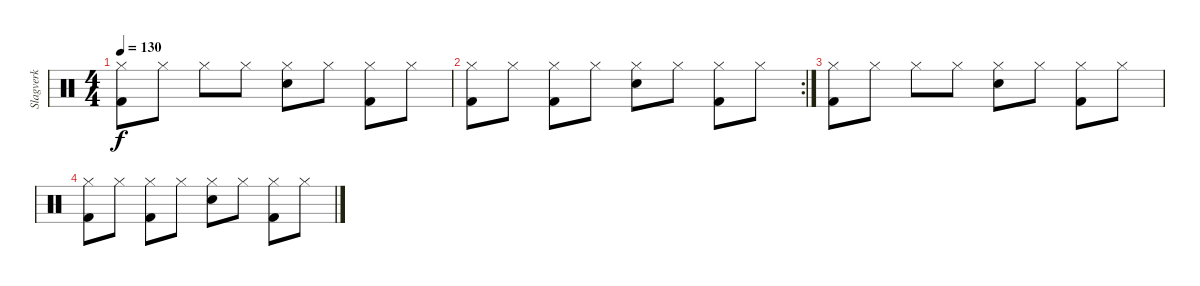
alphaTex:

\track ("Slagverk" "Slagverk") {instrument percussion}
\staff {score}
\articulation defaults
\ts (4 4)
\tempo 130
\clef neutral
\ks c
("Hi-Hat (closed)" "Kick (hit) 2").8{dy f} "Hi-Hat (closed)".8 "Hi-Hat (closed)".8 "Hi-Hat (closed)".8 ("Hi-Hat (closed)" "Electric Snare (hit)").8 "Hi-Hat (closed)".8 ("Hi-Hat (closed)" "Kick (hit) 2").8 "Hi-Hat (closed)".8 |
\rc 2
("Hi-Hat (closed)" "Kick (hit) 2").8 "Hi-Hat (closed)".8 ("Hi-Hat (closed)" "Kick (hit) 2").8 "Hi-Hat (closed)".8 ("Hi-Hat (closed)" "Electric Snare (hit)").8 "Hi-Hat (closed)".8 ("Hi-Hat (closed)" "Kick (hit) 2").8 "Hi-Hat (closed)".8 |
("Hi-Hat (closed)" "Kick (hit) 2").8 "Hi-Hat (closed)".8 "Hi-Hat (closed)".8 "Hi-Hat (closed)".8 ("Hi-Hat (closed)" "Electric Snare (hit)").8 "Hi-Hat (closed)".8 ("Hi-Hat (closed)" "Kick (hit) 2").8 "Hi-Hat (closed)".8 |
("Hi-Hat (closed)" "Kick (hit) 2").8 "Hi-Hat (closed)".8 ("Hi-Hat (closed)" "Kick (hit) 2").8 "Hi-Hat (closed)".8 ("Hi-Hat (closed)" "Electric Snare (hit)").8 "Hi-Hat (closed)".8 ("Hi-Hat (closed)" "Kick (hit) 2").8 "Hi-Hat (closed)".8
